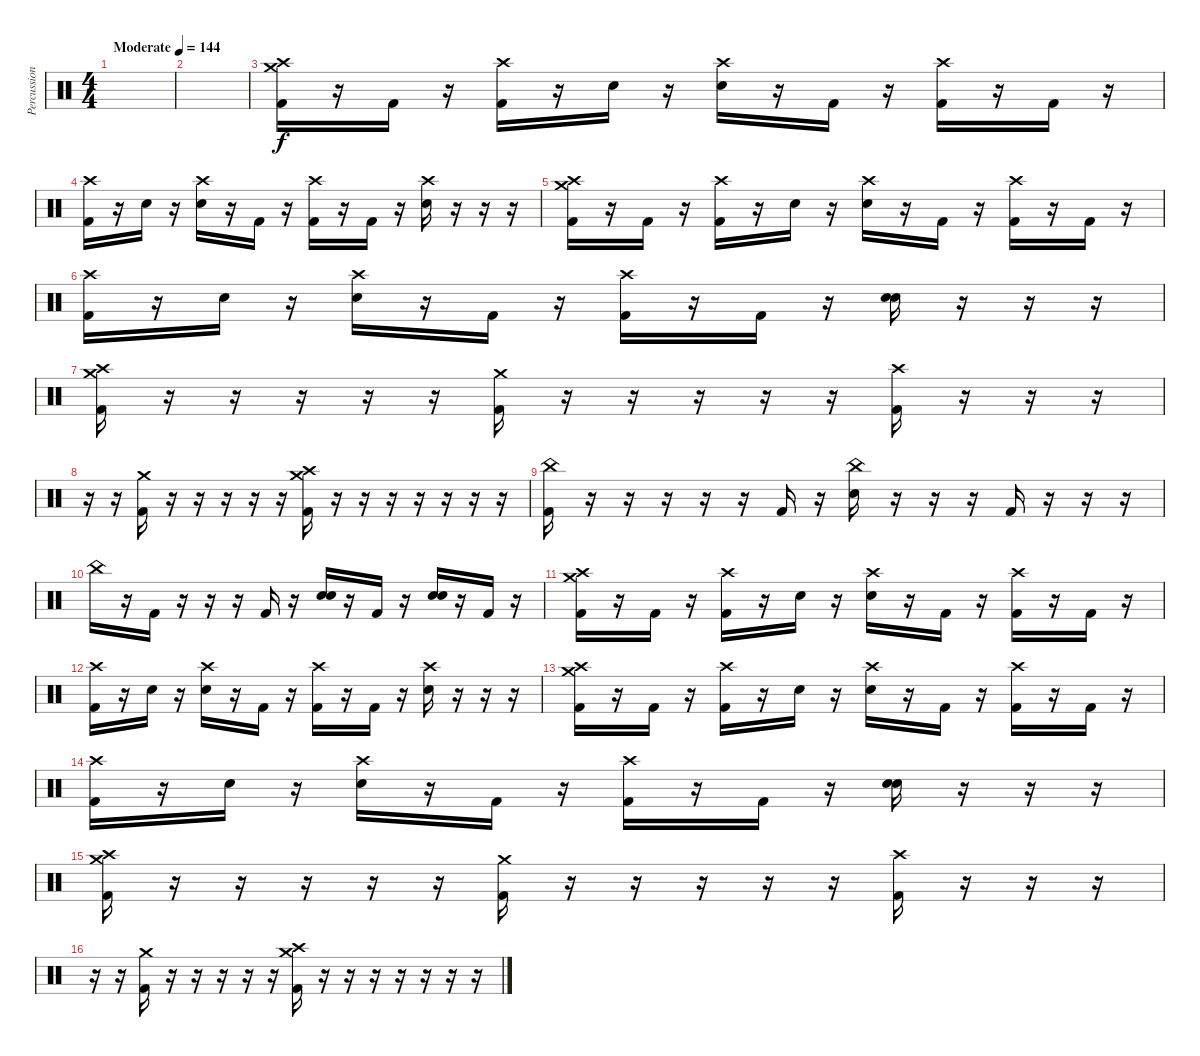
\track ("Percussion" "Percussion") {instrument percussion}
\staff {score}
\articulation defaults
\ts (4 4)
\tempo (144 "Moderate")
\clef neutral
\ks c
|
|
("Crash medium (hit)" "Crash high (hit)" "Kick (hit) 2").16 r.16 "Kick (hit) 2".16 r.16 ("Crash high (hit)" "Kick (hit) 2").16 r.16 "Electric Snare (hit)".16 r.16 ("Crash high (hit)" "Electric Snare (hit)").16 r.16 "Kick (hit) 2".16 r.16 ("Crash high (hit)" "Kick (hit) 2").16 r.16 "Kick (hit) 2".16 r.16 |
("Crash high (hit)" "Kick (hit) 2").16 r.16 "Electric Snare (hit)".16 r.16 ("Crash high (hit)" "Electric Snare (hit)").16 r.16 "Kick (hit) 2".16 r.16 ("Crash high (hit)" "Kick (hit) 2").16 r.16 "Kick (hit) 2".16 r.16 ("Crash high (hit)" "Electric Snare (hit)").16 r.16 r.16 r.16 |
("Crash medium (hit)" "Crash high (hit)" "Kick (hit) 2").16 r.16 "Kick (hit) 2".16 r.16 ("Crash high (hit)" "Kick (hit) 2").16 r.16 "Electric Snare (hit)".16 r.16 ("Crash high (hit)" "Electric Snare (hit)").16 r.16 "Kick (hit) 2".16 r.16 ("Crash high (hit)" "Kick (hit) 2").16 r.16 "Kick (hit) 2".16 r.16 |
("Crash high (hit)" "Kick (hit) 2").16 r.16 "Electric Snare (hit)".16 r.16 ("Crash high (hit)" "Electric Snare (hit)").16 r.16 "Kick (hit) 2".16 r.16 ("Crash high (hit)" "Kick (hit) 2").16 r.16 "Kick (hit) 2".16 r.16 ("Electric Snare (hit)" "Electric Snare (hit)").16{bd 480} r.16 r.16 r.16 |
("Crash medium (hit)" "Crash high (hit)" "Kick (hit) 2").16 r.16 r.16 r.16 r.16 r.16 ("Crash medium (hit)" "Kick (hit) 2").16 r.16 r.16 r.16 r.16 r.16 ("Crash high (hit)" "Kick (hit) 2").16 r.16 r.16 r.16 |
r.16 r.16 ("Crash medium (hit)" "Kick (hit) 2").16 r.16 r.16 r.16 r.16 r.16 ("Crash medium (hit)" "Crash high (hit)" "Kick (hit) 2").16 r.16 r.16 r.16 r.16 r.16 r.16 r.16 |
("China (hit)" "Kick (hit) 2").16 r.16 r.16 r.16 r.16 r.16 "Kick (hit) 2".16 r.16 ("China (hit)" "Electric Snare (hit)").16 r.16 r.16 r.16 "Kick (hit) 2".16 r.16 r.16 r.16 |
"China (hit)".16 r.16 "Kick (hit) 2".16 r.16 r.16 r.16 "Kick (hit) 2".16 r.16 ("Electric Snare (hit)" "Electric Snare (hit)").16{bd 480} r.16 "Kick (hit) 2".16 r.16 ("Electric Snare (hit)" "Electric Snare (hit)").16{bd 480} r.16 "Kick (hit) 2".16 r.16 |
("Crash medium (hit)" "Crash high (hit)" "Kick (hit) 2").16 r.16 "Kick (hit) 2".16 r.16 ("Crash high (hit)" "Kick (hit) 2").16 r.16 "Electric Snare (hit)".16 r.16 ("Crash high (hit)" "Electric Snare (hit)").16 r.16 "Kick (hit) 2".16 r.16 ("Crash high (hit)" "Kick (hit) 2").16 r.16 "Kick (hit) 2".16 r.16 |
("Crash high (hit)" "Kick (hit) 2").16 r.16 "Electric Snare (hit)".16 r.16 ("Crash high (hit)" "Electric Snare (hit)").16 r.16 "Kick (hit) 2".16 r.16 ("Crash high (hit)" "Kick (hit) 2").16 r.16 "Kick (hit) 2".16 r.16 ("Crash high (hit)" "Electric Snare (hit)").16 r.16 r.16 r.16 |
("Crash medium (hit)" "Crash high (hit)" "Kick (hit) 2").16 r.16 "Kick (hit) 2".16 r.16 ("Crash high (hit)" "Kick (hit) 2").16 r.16 "Electric Snare (hit)".16 r.16 ("Crash high (hit)" "Electric Snare (hit)").16 r.16 "Kick (hit) 2".16 r.16 ("Crash high (hit)" "Kick (hit) 2").16 r.16 "Kick (hit) 2".16 r.16 |
("Crash high (hit)" "Kick (hit) 2").16 r.16 "Electric Snare (hit)".16 r.16 ("Crash high (hit)" "Electric Snare (hit)").16 r.16 "Kick (hit) 2".16 r.16 ("Crash high (hit)" "Kick (hit) 2").16 r.16 "Kick (hit) 2".16 r.16 ("Electric Snare (hit)" "Electric Snare (hit)").16{bd 480} r.16 r.16 r.16 |
("Crash medium (hit)" "Crash high (hit)" "Kick (hit) 2").16 r.16 r.16 r.16 r.16 r.16 ("Crash medium (hit)" "Kick (hit) 2").16 r.16 r.16 r.16 r.16 r.16 ("Crash high (hit)" "Kick (hit) 2").16 r.16 r.16 r.16 |
r.16 r.16 ("Crash medium (hit)" "Kick (hit) 2").16 r.16 r.16 r.16 r.16 r.16 ("Crash medium (hit)" "Crash high (hit)" "Kick (hit) 2").16 r.16 r.16 r.16 r.16 r.16 r.16 r.16
